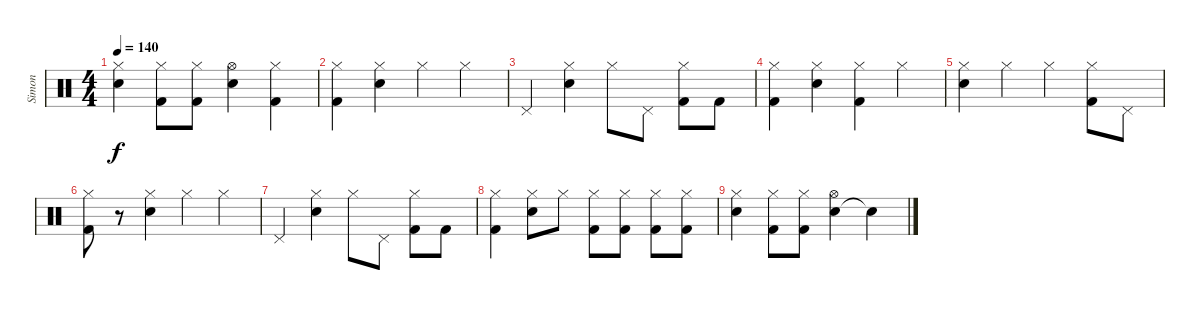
\track ("Simon" "Simon") {instrument percussion}
\staff {score}
\articulation defaults
\ts (4 4)
\tempo 140
\clef neutral
\ks c
("Electric Snare (hit)" "Hi-Hat (closed)").4{dy f} ("Kick (hit) 2" "Hi-Hat (closed)").8 ("Kick (hit) 2" "Hi-Hat (closed)").8 ("Electric Snare (hit)" "Hi-Hat (open)").4 ("Kick (hit) 2" "Hi-Hat (closed)").4 |
("Kick (hit) 2" "Hi-Hat (closed)").4 ("Electric Snare (hit)" "Hi-Hat (closed)").4 "Hi-Hat (closed)".4 "Hi-Hat (closed)".4 |
"Pedal Hi-Hat (hit)".4 ("Electric Snare (hit)" "Hi-Hat (closed)").4 "Hi-Hat (closed)".8 "Pedal Hi-Hat (hit)".8 ("Kick (hit) 2" "Hi-Hat (closed)").8 "Kick (hit) 2".8 |
("Kick (hit) 2" "Hi-Hat (closed)").4 ("Electric Snare (hit)" "Hi-Hat (closed)").4 ("Kick (hit) 2" "Hi-Hat (closed)").4 "Hi-Hat (closed)".4 |
("Electric Snare (hit)" "Hi-Hat (closed)").4 "Hi-Hat (closed)".4 "Hi-Hat (closed)".4 ("Kick (hit) 2" "Hi-Hat (closed)").8 "Pedal Hi-Hat (hit)".8 |
("Kick (hit) 2" "Hi-Hat (closed)").8 r.8 ("Electric Snare (hit)" "Hi-Hat (closed)").4 "Hi-Hat (closed)".4 "Hi-Hat (closed)".4 |
"Pedal Hi-Hat (hit)".4 ("Electric Snare (hit)" "Hi-Hat (closed)").4 "Hi-Hat (closed)".8 "Pedal Hi-Hat (hit)".8 ("Kick (hit) 2" "Hi-Hat (closed)").8 "Kick (hit) 2".8 |
("Kick (hit) 2" "Hi-Hat (closed)").4 ("Electric Snare (hit)" "Hi-Hat (closed)").8 "Hi-Hat (closed)".8 ("Kick (hit) 2" "Hi-Hat (closed)").8 ("Kick (hit) 2" "Hi-Hat (closed)").8 ("Kick (hit) 2" "Hi-Hat (closed)").8 ("Kick (hit) 2" "Hi-Hat (closed)").8 |
("Electric Snare (hit)" "Hi-Hat (closed)").4 ("Kick (hit) 2" "Hi-Hat (closed)").8 ("Kick (hit) 2" "Hi-Hat (closed)").8 ("Electric Snare (hit)" "Hi-Hat (open)").4 "Snare (hit)"{t}.4
